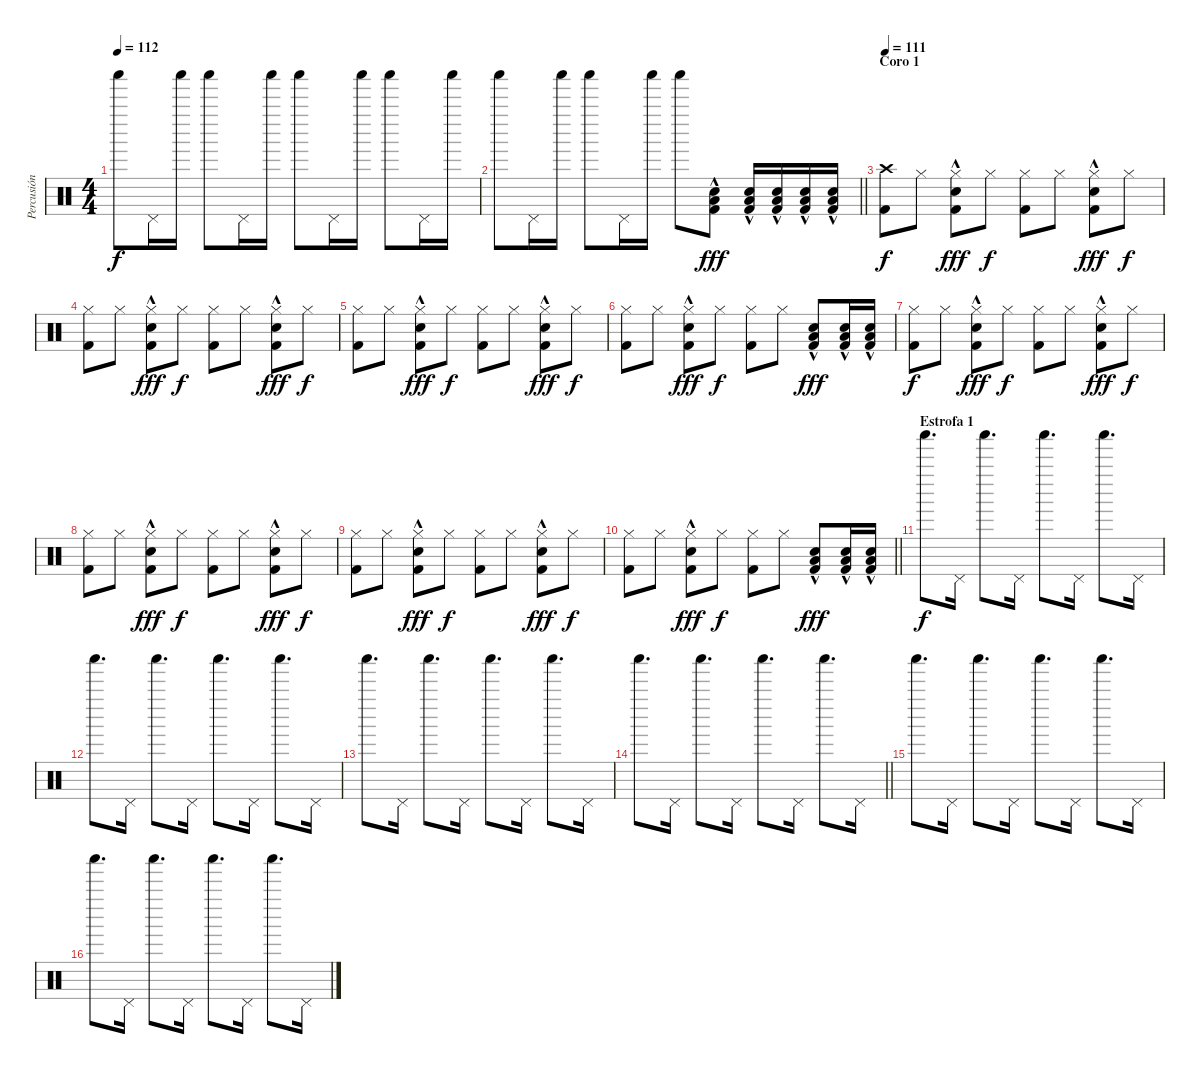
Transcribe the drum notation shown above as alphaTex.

\track ("Percusión" "Percusión") {instrument percussion}
\staff {score}
\articulation defaults
\ts (4 4)
\tempo 112
\clef neutral
\ks c "Shaker (hit)".8{dy f} "Pedal Hi-Hat (hit)".16 "Shaker (hit)".16 "Shaker (hit)".8 "Pedal Hi-Hat (hit)".16 "Shaker (hit)".16 "Shaker (hit)".8 "Pedal Hi-Hat (hit)".16 "Shaker (hit)".16 "Shaker (hit)".8 "Pedal Hi-Hat (hit)".16 "Shaker (hit)".16
|
\barLineRight lightlight "Shaker (hit)".8 "Pedal Hi-Hat (hit)".16 "Shaker (hit)".16 "Shaker (hit)".8 "Pedal Hi-Hat (hit)".16 "Shaker (hit)".16 "Shaker (hit)".8
("Snare (hit) 2"{hac} "Low Floor Tom (hit)"{hac} "Kick (hit) 2"{hac}).8{dy fff} ("Snare (hit) 2"{hac} "Low Floor Tom (hit)"{hac} "Kick (hit) 2"{hac}).16 ("Snare (hit) 2"{hac} "Low Floor Tom (hit)"{hac} "Kick (hit) 2"{hac}).16 ("Snare (hit) 2"{hac} "Low Floor Tom (hit)"{hac} "Kick (hit) 2"{hac}).16 ("Snare (hit) 2"{hac} "Low Floor Tom (hit)"{hac} "Kick (hit) 2"{hac}).16 |
\section ("" "Coro 1")
\tempo 111
("Crash high (hit)" "Kick (hit) 2").8{dy f} "Hi-Hat (closed)".8 ("Electric Snare (hit)"{hac} "Hi-Hat (closed)"{hac} "Kick (hit) 2"{hac}).8{dy fff} "Hi-Hat (closed)".8{dy f} ("Hi-Hat (closed)" "Kick (hit) 2").8 "Hi-Hat (closed)".8 ("Electric Snare (hit)"{hac} "Hi-Hat (closed)"{hac} "Kick (hit) 2"{hac}).8{dy fff} "Hi-Hat (closed)".8{dy f} |
("Hi-Hat (closed)" "Kick (hit) 2").8 "Hi-Hat (closed)".8 ("Electric Snare (hit)"{hac} "Hi-Hat (closed)"{hac} "Kick (hit) 2"{hac}).8{dy fff} "Hi-Hat (closed)".8{dy f} ("Hi-Hat (closed)" "Kick (hit) 2").8 "Hi-Hat (closed)".8 ("Electric Snare (hit)"{hac} "Hi-Hat (closed)"{hac} "Kick (hit) 2"{hac}).8{dy fff} "Hi-Hat (closed)".8{dy f} |
("Hi-Hat (closed)" "Kick (hit) 2").8 "Hi-Hat (closed)".8 ("Electric Snare (hit)"{hac} "Hi-Hat (closed)"{hac} "Kick (hit) 2"{hac}).8{dy fff} "Hi-Hat (closed)".8{dy f} ("Hi-Hat (closed)" "Kick (hit) 2").8 "Hi-Hat (closed)".8 ("Electric Snare (hit)"{hac} "Hi-Hat (closed)"{hac} "Kick (hit) 2"{hac}).8{dy fff} "Hi-Hat (closed)".8{dy f} |
("Hi-Hat (closed)" "Kick (hit) 2").8 "Hi-Hat (closed)".8 ("Electric Snare (hit)"{hac} "Hi-Hat (closed)"{hac} "Kick (hit) 2"{hac}).8{dy fff} "Hi-Hat (closed)".8{dy f} ("Hi-Hat (closed)" "Kick (hit) 2").8 "Hi-Hat (closed)".8 ("Snare (hit) 2"{hac} "Low Floor Tom (hit)"{hac} "Kick (hit) 2"{hac}).8{dy fff} ("Snare (hit) 2"{hac} "Low Floor Tom (hit)"{hac} "Kick (hit) 2"{hac}).16 ("Snare (hit) 2"{hac} "Low Floor Tom (hit)"{hac} "Kick (hit) 2"{hac}).16 |
("Hi-Hat (closed)" "Kick (hit) 2").8{dy f} "Hi-Hat (closed)".8 ("Electric Snare (hit)"{hac} "Hi-Hat (closed)"{hac} "Kick (hit) 2"{hac}).8{dy fff} "Hi-Hat (closed)".8{dy f} ("Hi-Hat (closed)" "Kick (hit) 2").8 "Hi-Hat (closed)".8 ("Electric Snare (hit)"{hac} "Hi-Hat (closed)"{hac} "Kick (hit) 2"{hac}).8{dy fff} "Hi-Hat (closed)".8{dy f} |
("Hi-Hat (closed)" "Kick (hit) 2").8 "Hi-Hat (closed)".8 ("Electric Snare (hit)"{hac} "Hi-Hat (closed)"{hac} "Kick (hit) 2"{hac}).8{dy fff} "Hi-Hat (closed)".8{dy f} ("Hi-Hat (closed)" "Kick (hit) 2").8 "Hi-Hat (closed)".8 ("Electric Snare (hit)"{hac} "Hi-Hat (closed)"{hac} "Kick (hit) 2"{hac}).8{dy fff} "Hi-Hat (closed)".8{dy f} |
("Hi-Hat (closed)" "Kick (hit) 2").8 "Hi-Hat (closed)".8 ("Electric Snare (hit)"{hac} "Hi-Hat (closed)"{hac} "Kick (hit) 2"{hac}).8{dy fff} "Hi-Hat (closed)".8{dy f} ("Hi-Hat (closed)" "Kick (hit) 2").8 "Hi-Hat (closed)".8 ("Electric Snare (hit)"{hac} "Hi-Hat (closed)"{hac} "Kick (hit) 2"{hac}).8{dy fff} "Hi-Hat (closed)".8{dy f} |
\barLineRight lightlight
("Hi-Hat (closed)" "Kick (hit) 2").8 "Hi-Hat (closed)".8 ("Electric Snare (hit)"{hac} "Hi-Hat (closed)"{hac} "Kick (hit) 2"{hac}).8{dy fff} "Hi-Hat (closed)".8{dy f} ("Hi-Hat (closed)" "Kick (hit) 2").8 "Hi-Hat (closed)".8 ("Snare (hit) 2"{hac} "Low Floor Tom (hit)"{hac} "Kick (hit) 2"{hac}).8{dy fff} ("Snare (hit) 2"{hac} "Low Floor Tom (hit)"{hac} "Kick (hit) 2"{hac}).16 ("Snare (hit) 2"{hac} "Low Floor Tom (hit)"{hac} "Kick (hit) 2"{hac}).16 |
\section ("" "Estrofa 1")
"Shaker (hit)".8{d dy f} "Pedal Hi-Hat (hit)".16 "Shaker (hit)".8{d} "Pedal Hi-Hat (hit)".16 "Shaker (hit)".8{d} "Pedal Hi-Hat (hit)".16 "Shaker (hit)".8{d} "Pedal Hi-Hat (hit)".16 |
"Shaker (hit)".8{d} "Pedal Hi-Hat (hit)".16 "Shaker (hit)".8{d} "Pedal Hi-Hat (hit)".16 "Shaker (hit)".8{d} "Pedal Hi-Hat (hit)".16 "Shaker (hit)".8{d} "Pedal Hi-Hat (hit)".16 |
"Shaker (hit)".8{d} "Pedal Hi-Hat (hit)".16 "Shaker (hit)".8{d} "Pedal Hi-Hat (hit)".16 "Shaker (hit)".8{d} "Pedal Hi-Hat (hit)".16 "Shaker (hit)".8{d} "Pedal Hi-Hat (hit)".16 |
\barLineRight lightlight "Shaker (hit)".8{d} "Pedal Hi-Hat (hit)".16 "Shaker (hit)".8{d} "Pedal Hi-Hat (hit)".16 "Shaker (hit)".8{d} "Pedal Hi-Hat (hit)".16 "Shaker (hit)".8{d} "Pedal Hi-Hat (hit)".16
|
"Shaker (hit)".8{d} "Pedal Hi-Hat (hit)".16 "Shaker (hit)".8{d} "Pedal Hi-Hat (hit)".16 "Shaker (hit)".8{d} "Pedal Hi-Hat (hit)".16 "Shaker (hit)".8{d} "Pedal Hi-Hat (hit)".16 |
"Shaker (hit)".8{d} "Pedal Hi-Hat (hit)".16 "Shaker (hit)".8{d} "Pedal Hi-Hat (hit)".16 "Shaker (hit)".8{d} "Pedal Hi-Hat (hit)".16 "Shaker (hit)".8{d} "Pedal Hi-Hat (hit)".16
